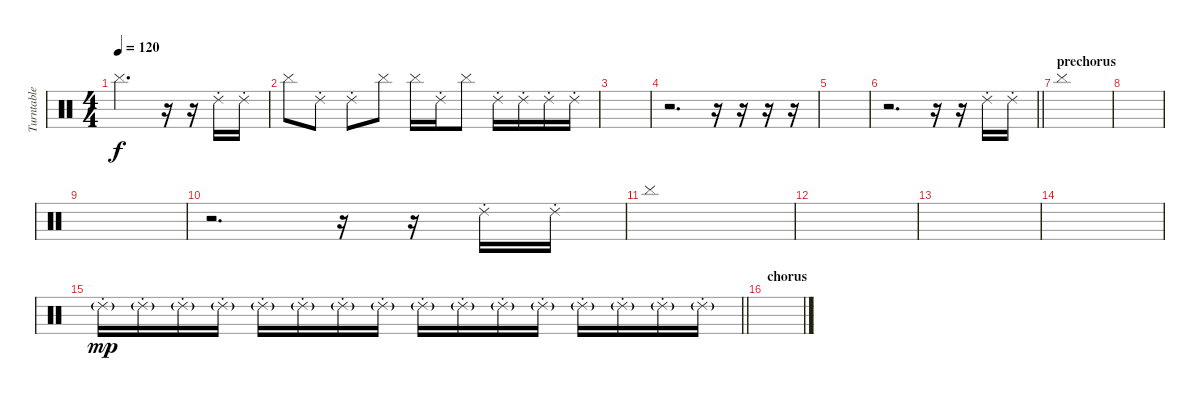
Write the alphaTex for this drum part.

\track ("Turntable" "Turntable") {instrument percussion}
\staff {score}
\articulation defaults
\ts (4 4)
\tempo 120
\clef neutral
\ks c "Cymbal (hit)".2{d dy f}
r.16 r.16 "Ride (choke) 2".16 "Ride (choke) 2".16 |
"Cymbal (hit)".8 "Ride (choke) 2".8 "Ride (choke) 2".8 "Cymbal (hit)".8 "Cymbal (hit)".16 "Ride (choke) 2".16 "Cymbal (hit)".8 "Ride (choke) 2".16 "Ride (choke) 2".16 "Ride (choke) 2".16 "Ride (choke) 2".16 |
|
r.2{d} r.16 r.16 r.16 r.16 |
|
\barLineRight lightlight
r.2{d} r.16 r.16 "Ride (choke) 2".16 "Ride (choke) 2".16 |
\section ("" "prechorus")
"Cymbal (hit)".1 |
|
|
r.2{d} r.16 r.16 "Ride (choke) 2".16 "Ride (choke) 2".16 |
"Cymbal (hit)".1 |
|
|
|
\barLineRight lightlight "Ride (choke) 2"{g}.16{dy mp} "Ride (choke) 2"{g}.16 "Ride (choke) 2"{g}.16 "Ride (choke) 2"{g}.16 "Ride (choke) 2"{g}.16 "Ride (choke) 2"{g}.16 "Ride (choke) 2"{g}.16 "Ride (choke) 2"{g}.16 "Ride (choke) 2"{g}.16 "Ride (choke) 2"{g}.16 "Ride (choke) 2"{g}.16 "Ride (choke) 2"{g}.16 "Ride (choke) 2"{g}.16 "Ride (choke) 2"{g}.16 "Ride (choke) 2"{g}.16 "Ride (choke) 2"{g}.16
|
\section ("" "chorus")
